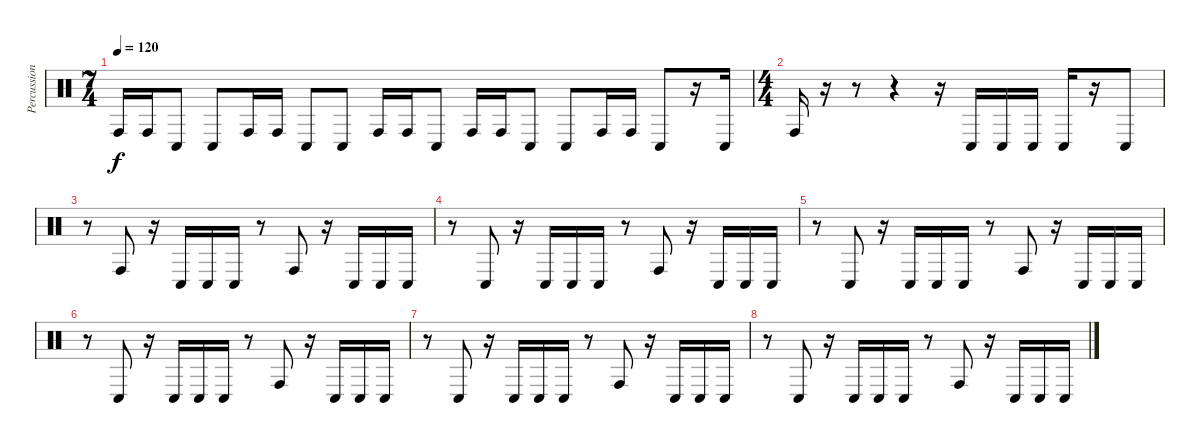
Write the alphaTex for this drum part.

\track ("Percussion" "Percussion") {instrument percussion}
\staff {score}
\articulation defaults
\ts (7 4)
\tempo 120
\clef neutral
\ks c "Conga high (hit)".16{dy f} "Conga high (hit)".16 "Conga low (hit)".8 "Conga low (hit)".8 "Conga high (hit)".16 "Conga high (hit)".16 "Conga low (hit)".8 "Conga low (hit)".8 "Conga high (hit)".16 "Conga high (hit)".16 "Conga low (hit)".8 "Conga high (hit)".16 "Conga high (hit)".16 "Conga low (hit)".8 "Conga low (hit)".8 "Conga high (hit)".16 "Conga high (hit)".16 "Conga low (hit)".8
r.16 "Conga low (hit)".16 |
\ts (4 4)
"Conga high (hit)".16 r.16 r.8 r.4 r.16 "Conga low (hit)".16 "Conga low (hit)".16 "Conga low (hit)".16 "Conga low (hit)".16 r.16 "Conga low (hit)".8 |
r.8 "Conga high (hit)".8 r.16 "Conga low (hit)".16 "Conga low (hit)".16 "Conga low (hit)".16 r.8 "Conga high (hit)".8 r.16 "Conga low (hit)".16 "Conga low (hit)".16 "Conga low (hit)".16 |
r.8 "Conga low (hit)".8 r.16 "Conga low (hit)".16 "Conga low (hit)".16 "Conga low (hit)".16 r.8 "Conga high (hit)".8 r.16 "Conga low (hit)".16 "Conga low (hit)".16 "Conga low (hit)".16 |
r.8 "Conga low (hit)".8 r.16 "Conga low (hit)".16 "Conga low (hit)".16 "Conga low (hit)".16 r.8 "Conga high (hit)".8 r.16 "Conga low (hit)".16 "Conga low (hit)".16 "Conga low (hit)".16 |
r.8 "Conga low (hit)".8 r.16 "Conga low (hit)".16 "Conga low (hit)".16 "Conga low (hit)".16 r.8 "Conga high (hit)".8 r.16 "Conga low (hit)".16 "Conga low (hit)".16 "Conga low (hit)".16 |
r.8 "Conga low (hit)".8 r.16 "Conga low (hit)".16 "Conga low (hit)".16 "Conga low (hit)".16 r.8 "Conga high (hit)".8 r.16 "Conga low (hit)".16 "Conga low (hit)".16 "Conga low (hit)".16 |
r.8 "Conga low (hit)".8 r.16 "Conga low (hit)".16 "Conga low (hit)".16 "Conga low (hit)".16 r.8 "Conga high (hit)".8 r.16 "Conga low (hit)".16 "Conga low (hit)".16 "Conga low (hit)".16
